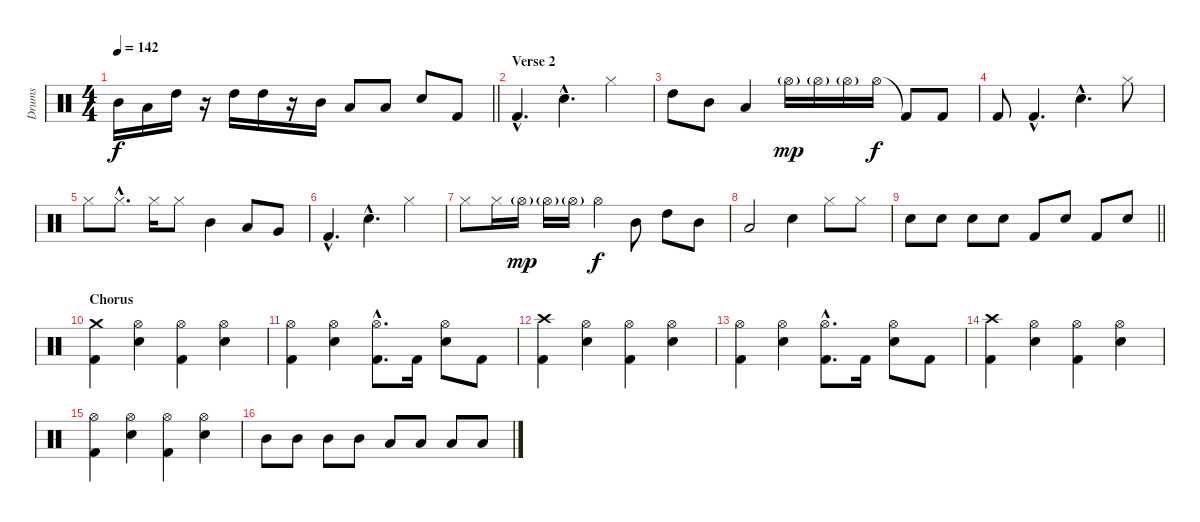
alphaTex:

\track ("Drums" "Drums") {instrument percussion}
\staff {score}
\articulation defaults
\ts (4 4)
\tempo 142
\clef neutral
\barLineRight lightlight
\ks c "Mid Tom (hit)".16{dy f} "Low Tom (hit)".16 "High Tom (hit)".16
r.16 "High Tom (hit)".16 "High Tom (hit)".16 r.16 "Mid Tom (hit)".16 "Low Tom (hit)".8 "Low Tom (hit)".8 "Snare (hit) 2".8 "Kick (hit) 2".8 |
\section ("" "Verse 2")
"Kick (hit) 2"{hac}.4{d} "Snare (hit) 2"{hac}.4{d} "Hi-Hat (closed)".4 |
"High Tom (hit)".8 "Mid Tom (hit)".8 "Low Tom (hit)".4 "Hi-Hat (open)"{g}.16{dy mp} "Hi-Hat (open)"{g}.16 "Hi-Hat (open)"{g}.16 "Hi-Hat (open)".16{dy f} "Kick (hit) 2"{t}.8 "Kick (hit) 2".8 |
"Kick (hit) 2".8 "Kick (hit) 2"{hac}.4{d} "Snare (hit) 2"{hac}.4{d} "Hi-Hat (closed)".8 |
"Hi-Hat (closed)".8 "Hi-Hat (closed)"{hac}.8{d} "Hi-Hat (closed)".16 "Hi-Hat (closed)".8 "Mid Tom (hit)".4 "Low Tom (hit)".8 "Very Low Tom (hit)".8 |
"Kick (hit) 2"{hac}.4{d} "Snare (hit) 2"{hac}.4{d} "Hi-Hat (closed)".4 |
"Hi-Hat (closed)".8 "Hi-Hat (closed)".16 "Hi-Hat (open)"{g}.16{dy mp} "Hi-Hat (open)"{g}.16 "Hi-Hat (open)"{g}.16 "Hi-Hat (open)".4{dy f} "Mid Tom (hit)".8 "High Tom (hit)".8 "Mid Tom (hit)".8 |
"Low Tom (hit)".2 "Snare (hit) 2".4 "Hi-Hat (closed)".8 "Hi-Hat (closed)".8 |
\barLineRight lightlight "Snare (hit) 2".8 "Snare (hit) 2".8 "Snare (hit) 2".8 "Snare (hit) 2".8 "Kick (hit) 2".8 "Snare (hit) 2".8 "Kick (hit) 2".8 "Snare (hit) 2".8
|
\section ("" "Chorus")
("Kick (hit) 2" "Crash medium (hit)").4 ("Snare (hit) 2" "Hi-Hat (open)").4 ("Kick (hit) 2" "Hi-Hat (open)").4 ("Snare (hit) 2" "Hi-Hat (open)").4 |
("Kick (hit) 2" "Hi-Hat (open)").4 ("Snare (hit) 2" "Hi-Hat (open)").4 ("Kick (hit) 2"{hac} "Hi-Hat (open)"{hac}).8{d} "Kick (hit) 2".16 ("Snare (hit) 2" "Hi-Hat (open)").8 "Kick (hit) 2".8 |
("Kick (hit) 2" "Crash high (hit)").4 ("Snare (hit) 2" "Hi-Hat (open)").4 ("Kick (hit) 2" "Hi-Hat (open)").4 ("Snare (hit) 2" "Hi-Hat (open)").4 |
("Kick (hit) 2" "Hi-Hat (open)").4 ("Snare (hit) 2" "Hi-Hat (open)").4 ("Kick (hit) 2"{hac} "Hi-Hat (open)"{hac}).8{d} "Kick (hit) 2".16 ("Snare (hit) 2" "Hi-Hat (open)").8 "Kick (hit) 2".8 |
("Kick (hit) 2" "Crash high (hit)").4 ("Snare (hit) 2" "Hi-Hat (open)").4 ("Kick (hit) 2" "Hi-Hat (open)").4 ("Snare (hit) 2" "Hi-Hat (open)").4 |
("Kick (hit) 2" "Hi-Hat (open)").4 ("Snare (hit) 2" "Hi-Hat (open)").4 ("Kick (hit) 2" "Hi-Hat (open)").4 ("Snare (hit) 2" "Hi-Hat (open)").4 |
"Mid Tom (hit)".8 "Mid Tom (hit)".8 "Mid Tom (hit)".8 "Mid Tom (hit)".8 "Low Tom (hit)".8 "Low Tom (hit)".8 "Low Tom (hit)".8 "Low Tom (hit)".8
